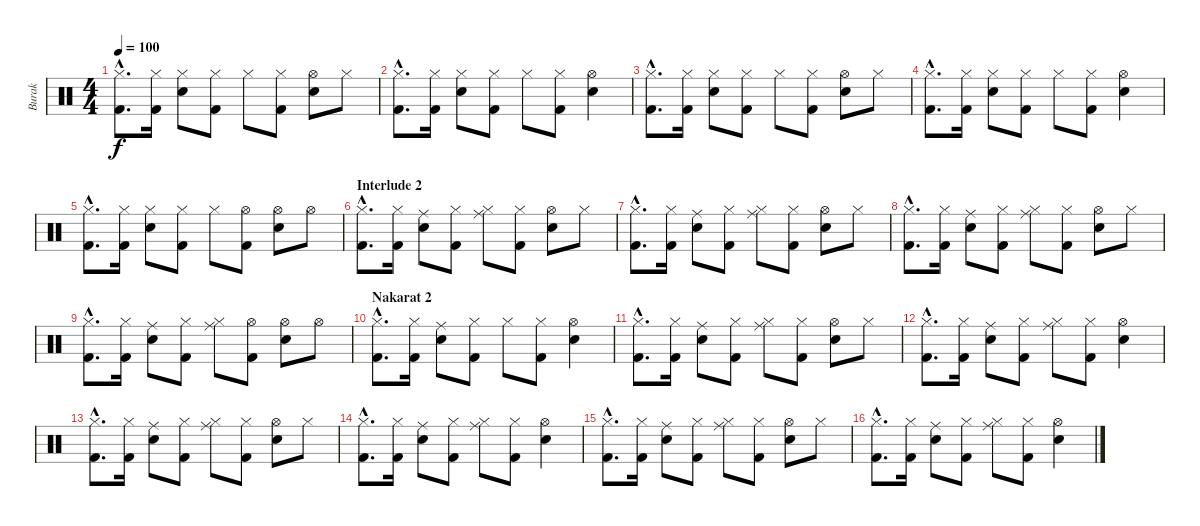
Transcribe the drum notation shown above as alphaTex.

\track ("Burak" "Burak") {instrument percussion}
\staff {score}
\articulation defaults
\ts (4 4)
\tempo 100
\clef neutral
\ks c
("Kick (hit) 2"{hac} "Hi-Hat (closed)"{hac}).8{d dy f} ("Kick (hit) 2" "Hi-Hat (closed)").16 ("Electric Snare (hit)" "Hi-Hat (closed)").8 ("Kick (hit) 2" "Hi-Hat (closed)").8 "Hi-Hat (closed)".8 ("Kick (hit) 2" "Hi-Hat (closed)").8 ("Electric Snare (hit)" "Hi-Hat (open)").8 "Hi-Hat (closed)".8 |
("Kick (hit) 2"{hac} "Hi-Hat (closed)"{hac}).8{d} ("Kick (hit) 2" "Hi-Hat (closed)").16 ("Electric Snare (hit)" "Hi-Hat (closed)").8 ("Kick (hit) 2" "Hi-Hat (closed)").8 "Hi-Hat (closed)".8 ("Kick (hit) 2" "Hi-Hat (closed)").8 ("Electric Snare (hit)" "Hi-Hat (open)").4 |
("Kick (hit) 2"{hac} "Hi-Hat (closed)"{hac}).8{d} ("Kick (hit) 2" "Hi-Hat (closed)").16 ("Electric Snare (hit)" "Hi-Hat (closed)").8 ("Kick (hit) 2" "Hi-Hat (closed)").8 "Hi-Hat (closed)".8 ("Kick (hit) 2" "Hi-Hat (closed)").8 ("Electric Snare (hit)" "Hi-Hat (open)").8 "Hi-Hat (closed)".8 |
("Kick (hit) 2"{hac} "Hi-Hat (closed)"{hac}).8{d} ("Kick (hit) 2" "Hi-Hat (closed)").16 ("Electric Snare (hit)" "Hi-Hat (closed)").8 ("Kick (hit) 2" "Hi-Hat (closed)").8 "Hi-Hat (closed)".8 ("Kick (hit) 2" "Hi-Hat (closed)").8 ("Electric Snare (hit)" "Hi-Hat (open)").4 |
("Kick (hit) 2"{hac} "Hi-Hat (closed)"{hac}).8{d} ("Kick (hit) 2" "Hi-Hat (closed)").16 ("Electric Snare (hit)" "Hi-Hat (closed)").8 ("Kick (hit) 2" "Hi-Hat (closed)").8 "Hi-Hat (closed)".8 ("Kick (hit) 2" "Hi-Hat (open)").8 ("Electric Snare (hit)" "Hi-Hat (open)").8 "Hi-Hat (open)".8 |
\section ("" "Interlude 2")
("Kick (hit) 2"{hac} "Hi-Hat (closed)"{hac}).8{d} ("Kick (hit) 2" "Hi-Hat (closed)").16 ("Electric Snare (hit)" "Ride (middle)").8 ("Kick (hit) 2" "Hi-Hat (closed)").8 ("Ride (middle)" "Hi-Hat (closed)").8 ("Kick (hit) 2" "Hi-Hat (closed)").8 ("Electric Snare (hit)" "Hi-Hat (open)").8 "Hi-Hat (closed)".8 |
("Kick (hit) 2"{hac} "Hi-Hat (closed)"{hac}).8{d} ("Kick (hit) 2" "Hi-Hat (closed)").16 ("Electric Snare (hit)" "Ride (middle)").8 ("Kick (hit) 2" "Hi-Hat (closed)").8 ("Ride (middle)" "Hi-Hat (closed)").8 ("Kick (hit) 2" "Hi-Hat (closed)").8 ("Electric Snare (hit)" "Hi-Hat (open)").8 "Hi-Hat (closed)".8 |
("Kick (hit) 2"{hac} "Hi-Hat (closed)"{hac}).8{d} ("Kick (hit) 2" "Hi-Hat (closed)").16 ("Electric Snare (hit)" "Ride (middle)").8 ("Kick (hit) 2" "Hi-Hat (closed)").8 ("Ride (middle)" "Hi-Hat (closed)").8 ("Kick (hit) 2" "Hi-Hat (closed)").8 ("Electric Snare (hit)" "Hi-Hat (open)").8 "Hi-Hat (closed)".8 |
("Kick (hit) 2"{hac} "Hi-Hat (closed)"{hac}).8{d} ("Kick (hit) 2" "Hi-Hat (closed)").16 ("Electric Snare (hit)" "Ride (middle)").8 ("Kick (hit) 2" "Hi-Hat (closed)").8 ("Ride (middle)" "Hi-Hat (closed)").8 ("Kick (hit) 2" "Hi-Hat (open)").8 ("Electric Snare (hit)" "Hi-Hat (open)").8 "Hi-Hat (open)".8 |
\section ("" "Nakarat 2")
("Kick (hit) 2"{hac} "Hi-Hat (closed)"{hac}).8{d} ("Kick (hit) 2" "Hi-Hat (closed)").16 ("Electric Snare (hit)" "Ride (middle)").8 ("Kick (hit) 2" "Hi-Hat (closed)").8 "Hi-Hat (closed)".8 ("Kick (hit) 2" "Hi-Hat (closed)").8 ("Electric Snare (hit)" "Hi-Hat (open)").4 |
("Kick (hit) 2"{hac} "Hi-Hat (closed)"{hac}).8{d} ("Kick (hit) 2" "Hi-Hat (closed)").16 ("Electric Snare (hit)" "Ride (middle)").8 ("Kick (hit) 2" "Hi-Hat (closed)").8 ("Ride (middle)" "Hi-Hat (closed)").8 ("Kick (hit) 2" "Hi-Hat (closed)").8 ("Electric Snare (hit)" "Hi-Hat (open)").8 "Hi-Hat (closed)".8 |
("Kick (hit) 2"{hac} "Hi-Hat (closed)"{hac}).8{d} ("Kick (hit) 2" "Hi-Hat (closed)").16 ("Electric Snare (hit)" "Ride (middle)").8 ("Kick (hit) 2" "Hi-Hat (closed)").8 ("Ride (middle)" "Hi-Hat (closed)").8 ("Kick (hit) 2" "Hi-Hat (closed)").8 ("Electric Snare (hit)" "Hi-Hat (open)").4 |
("Kick (hit) 2"{hac} "Hi-Hat (closed)"{hac}).8{d} ("Kick (hit) 2" "Hi-Hat (closed)").16 ("Electric Snare (hit)" "Ride (middle)").8 ("Kick (hit) 2" "Hi-Hat (closed)").8 ("Ride (middle)" "Hi-Hat (closed)").8 ("Kick (hit) 2" "Hi-Hat (closed)").8 ("Electric Snare (hit)" "Hi-Hat (open)").8 "Hi-Hat (closed)".8 |
("Kick (hit) 2"{hac} "Hi-Hat (closed)"{hac}).8{d} ("Kick (hit) 2" "Hi-Hat (closed)").16 ("Electric Snare (hit)" "Ride (middle)").8 ("Kick (hit) 2" "Hi-Hat (closed)").8 ("Ride (middle)" "Hi-Hat (closed)").8 ("Kick (hit) 2" "Hi-Hat (closed)").8 ("Electric Snare (hit)" "Hi-Hat (open)").4 |
("Kick (hit) 2"{hac} "Hi-Hat (closed)"{hac}).8{d} ("Kick (hit) 2" "Hi-Hat (closed)").16 ("Electric Snare (hit)" "Ride (middle)").8 ("Kick (hit) 2" "Hi-Hat (closed)").8 ("Ride (middle)" "Hi-Hat (closed)").8 ("Kick (hit) 2" "Hi-Hat (closed)").8 ("Electric Snare (hit)" "Hi-Hat (open)").8 "Hi-Hat (closed)".8 |
("Kick (hit) 2"{hac} "Hi-Hat (closed)"{hac}).8{d} ("Kick (hit) 2" "Hi-Hat (closed)").16 ("Electric Snare (hit)" "Ride (middle)").8 ("Kick (hit) 2" "Hi-Hat (closed)").8 ("Ride (middle)" "Hi-Hat (closed)").8 ("Kick (hit) 2" "Hi-Hat (closed)").8 ("Electric Snare (hit)" "Hi-Hat (open)").4
